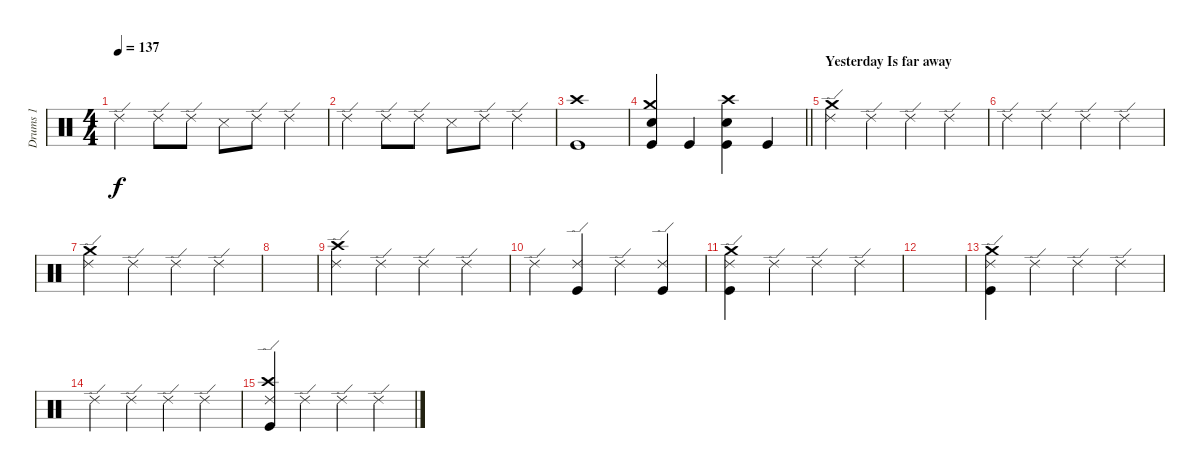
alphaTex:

\track ("Drums 1" "Drums 1") {instrument percussion}
\staff {score}
\articulation defaults
\ts (4 4)
\tempo 137
\clef neutral
\ks c "Ride (edge) 2".4{dy f} "Ride (edge) 2".8 "Ride (edge) 2".8 "Snare (side stick) 3".8 "Ride (edge) 2".8 "Ride (edge) 2".4
|
"Ride (edge) 2".4 "Ride (edge) 2".8 "Ride (edge) 2".8 "Snare (side stick) 3".8 "Ride (edge) 2".8 "Ride (edge) 2".4 |
("Crash high (hit)" "Kick (hit)").1 |
\barLineRight lightlight
("Crash medium (hit)" "Snare (hit) 2" "Kick (hit)").4 "Kick (hit)".4 ("Crash high (hit)" "Snare (hit) 2" "Kick (hit)").4 "Kick (hit)".4 |
\section ("" "Yesterday Is far away")
("Crash medium (hit)" "Ride (edge) 2").4 "Ride (edge) 2".4 "Ride (edge) 2".4 "Ride (edge) 2".4 |
"Ride (edge) 2".4 "Ride (edge) 2".4 "Ride (edge) 2".4 "Ride (edge) 2".4 |
("Crash medium (hit)" "Ride (edge) 2").4 "Ride (edge) 2".4 "Ride (edge) 2".4 "Ride (edge) 2".4 |
|
("Crash high (hit)" "Ride (edge) 2").4 "Ride (edge) 2".4 "Ride (edge) 2".4 "Ride (edge) 2".4 |
"Ride (edge) 2".4 ("Ride (edge) 2" "Kick (hit)").4 "Ride (edge) 2".4 ("Ride (edge) 2" "Kick (hit)").4 |
("Crash medium (hit)" "Ride (edge) 2" "Kick (hit)").4 "Ride (edge) 2".4 "Ride (edge) 2".4 "Ride (edge) 2".4 |
|
("Crash medium (hit)" "Ride (edge) 2" "Kick (hit)").4 "Ride (edge) 2".4 "Ride (edge) 2".4 "Ride (edge) 2".4 |
"Ride (edge) 2".4 "Ride (edge) 2".4 "Ride (edge) 2".4 "Ride (edge) 2".4 |
("Crash high (hit)" "Ride (edge) 2" "Kick (hit)").4 "Ride (edge) 2".4 "Ride (edge) 2".4 "Ride (edge) 2".4
